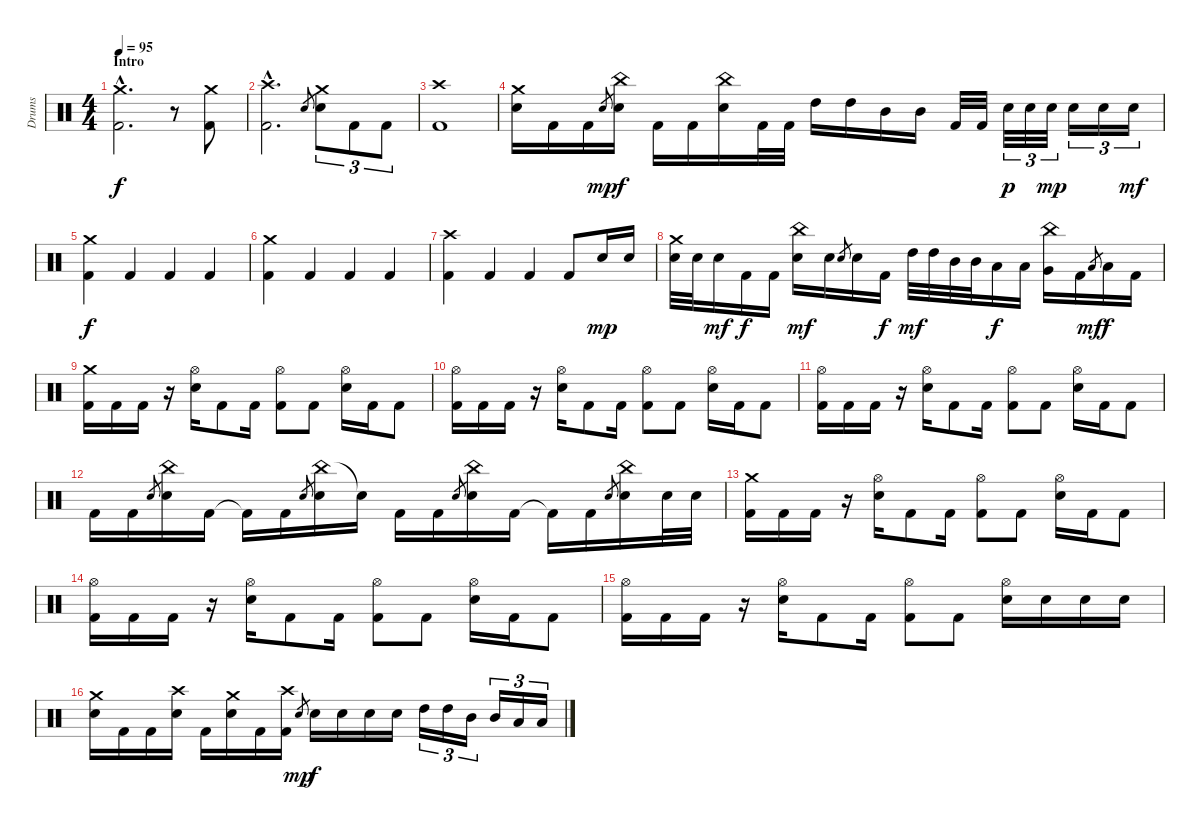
\track ("Drums" "Drums") {instrument percussion}
\staff {score}
\articulation defaults
\ts (4 4)
\section ("" "Intro")
\tempo 95
\clef neutral
\ks c
("Crash medium (hit)"{hac} "Kick (hit) 2"{hac}).2{d dy f} r.8 ("Crash medium (hit)" "Kick (hit) 2").8 |
("Crash high (hit)"{hac} "Kick (hit) 2"{hac}).2{d} "Snare (hit) 2".8{gr} ("Crash medium (hit)" "Snare (hit) 2").8{tu (3 2)} "Kick (hit) 2".8{tu (3 2)} "Kick (hit) 2".8{tu (3 2)} |
("Crash high (hit)" "Kick (hit) 2").1 |
("Crash medium (hit)" "Snare (hit) 2").16 "Kick (hit) 2".16 "Kick (hit) 2".16 "Snare (hit) 2".8{gr dy mp} ("China (hit)" "Snare (hit) 2").16{dy f} "Kick (hit) 2".16 "Kick (hit) 2".16 ("China (hit)" "Snare (hit) 2").16 "Kick (hit) 2".32 "Kick (hit) 2".32 "High Tom (hit)".16 "High Tom (hit)".16 "Mid Tom (hit)".16 "Mid Tom (hit)".16 "Kick (hit) 2".32 "Kick (hit) 2".32 "Snare (hit) 2".32{tu (3 2) dy p} "Snare (hit) 2".32{tu (3 2)} "Snare (hit) 2".32{tu (3 2) dy mp} "Snare (hit) 2".16{tu (3 2)} "Snare (hit) 2".16{tu (3 2)} "Snare (hit) 2".16{tu (3 2) dy mf} |
("Crash medium (hit)" "Kick (hit) 2").4{dy f} "Kick (hit) 2".4 "Kick (hit) 2".4 "Kick (hit) 2".4 |
("Crash medium (hit)" "Kick (hit) 2").4 "Kick (hit) 2".4 "Kick (hit) 2".4 "Kick (hit) 2".4 |
("Crash high (hit)" "Kick (hit) 2").4 "Kick (hit) 2".4 "Kick (hit) 2".4 "Kick (hit) 2".8 "Snare (hit) 2".16{dy mp} "Snare (hit) 2".16 |
("Crash medium (hit)" "Snare (hit) 2").32 "Snare (hit) 2".32 "Snare (hit) 2".16{dy mf} "Kick (hit) 2".16{dy f} "Kick (hit) 2".16 ("China (hit)" "Snare (hit) 2").16{dy mf} "Snare (hit) 2".16 "Snare (hit) 2".8{gr} "Snare (hit) 2".16 "Kick (hit) 2".16{dy f} "High Tom (hit)".32{dy mf} "High Tom (hit)".32 "Mid Tom (hit)".32 "Mid Tom (hit)".32 "Low Tom (hit)".16{dy f} "Low Tom (hit)".16 ("China (hit)" "Very Low Tom (hit)").16 "Kick (hit) 2".16 "Low Tom (hit)".8{gr dy mf} "Low Floor Tom (hit)".16{dy f} "Kick (hit) 2".16 |
("Crash medium (hit)" "Kick (hit) 2").16 "Kick (hit) 2".16 "Kick (hit) 2".16 r.16 ("Hi-Hat (open)" "Snare (hit) 2").16 "Kick (hit) 2".8 "Kick (hit) 2".16 ("Hi-Hat (open)" "Kick (hit) 2").8 "Kick (hit) 2".8 ("Hi-Hat (open)" "Snare (hit) 2").16 "Kick (hit) 2".16 "Kick (hit) 2".8 |
("Hi-Hat (open)" "Kick (hit) 2").16 "Kick (hit) 2".16 "Kick (hit) 2".16 r.16 ("Hi-Hat (open)" "Snare (hit) 2").16 "Kick (hit) 2".8 "Kick (hit) 2".16 ("Hi-Hat (open)" "Kick (hit) 2").8 "Kick (hit) 2".8 ("Hi-Hat (open)" "Snare (hit) 2").16 "Kick (hit) 2".16 "Kick (hit) 2".8 |
("Hi-Hat (open)" "Kick (hit) 2").16 "Kick (hit) 2".16 "Kick (hit) 2".16 r.16 ("Hi-Hat (open)" "Snare (hit) 2").16 "Kick (hit) 2".8 "Kick (hit) 2".16 ("Hi-Hat (open)" "Kick (hit) 2").8 "Kick (hit) 2".8 ("Hi-Hat (open)" "Snare (hit) 2").16 "Kick (hit) 2".16 "Kick (hit) 2".8 |
"Kick (hit) 2".16 "Kick (hit) 2".16 "Snare (hit) 2".8{gr} ("China (hit)" "Snare (hit) 2").16 "Kick (hit) 2".16 "Kick (hit) 2"{t}.16 "Kick (hit) 2".16 "Snare (hit) 2".8{gr} ("China (hit)" "Snare (hit) 2").16 "Snare (hit) 2"{t}.16 "Kick (hit) 2".16 "Kick (hit) 2".16 "Snare (hit) 2".8{gr} ("China (hit)" "Snare (hit) 2").16 "Kick (hit) 2".16 "Kick (hit) 2"{t}.16 "Kick (hit) 2".16 "Snare (hit) 2".8{gr} ("China (hit)" "Snare (hit) 2").16 "Snare (hit) 2".32 "Snare (hit) 2".32 |
("Crash medium (hit)" "Kick (hit) 2").16 "Kick (hit) 2".16 "Kick (hit) 2".16 r.16 ("Hi-Hat (open)" "Snare (hit) 2").16 "Kick (hit) 2".8 "Kick (hit) 2".16 ("Hi-Hat (open)" "Kick (hit) 2").8 "Kick (hit) 2".8 ("Hi-Hat (open)" "Snare (hit) 2").16 "Kick (hit) 2".16 "Kick (hit) 2".8 |
("Hi-Hat (open)" "Kick (hit) 2").16 "Kick (hit) 2".16 "Kick (hit) 2".16 r.16 ("Hi-Hat (open)" "Snare (hit) 2").16 "Kick (hit) 2".8 "Kick (hit) 2".16 ("Hi-Hat (open)" "Kick (hit) 2").8 "Kick (hit) 2".8 ("Hi-Hat (open)" "Snare (hit) 2").16 "Kick (hit) 2".16 "Kick (hit) 2".8 |
("Hi-Hat (open)" "Kick (hit) 2").16 "Kick (hit) 2".16 "Kick (hit) 2".16 r.16 ("Hi-Hat (open)" "Snare (hit) 2").16 "Kick (hit) 2".8 "Kick (hit) 2".16 ("Hi-Hat (open)" "Kick (hit) 2").8 "Kick (hit) 2".8 ("Hi-Hat (open)" "Snare (hit) 2").16 "Snare (hit) 2".16 "Snare (hit) 2".16 "Snare (hit) 2".16 |
("Crash medium (hit)" "Snare (hit) 2").16 "Kick (hit) 2".16 "Kick (hit) 2".16 ("Crash high (hit)" "Snare (hit) 2").16 "Kick (hit) 2".16 ("Crash medium (hit)" "Snare (hit) 2").16 "Kick (hit) 2".16 ("Crash high (hit)" "Kick (hit) 2").16 "Snare (hit) 2".8{gr dy mp} "Snare (hit) 2".16{dy f} "Snare (hit) 2".16 "Snare (hit) 2".16 "Snare (hit) 2".16 "High Tom (hit)".16{tu (3 2)} "High Tom (hit)".16{tu (3 2)} "Mid Tom (hit)".16{tu (3 2)} "Mid Tom (hit)".16{tu (3 2)} "Low Tom (hit)".16{tu (3 2)} "Low Tom (hit)".16{tu (3 2)}
